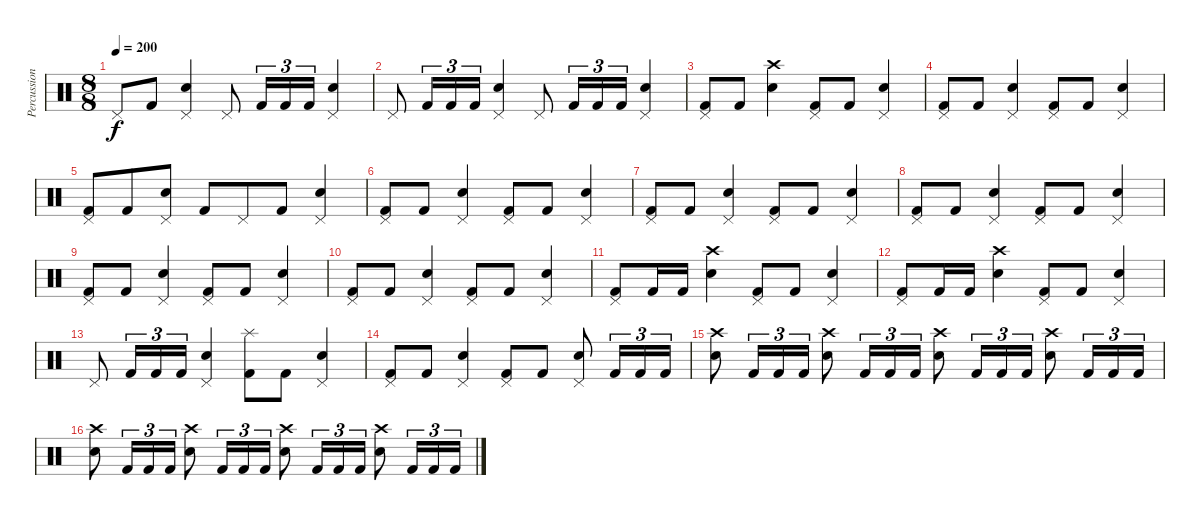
\track ("Percussions" "Percussion") {instrument percussion}
\staff {score}
\articulation defaults
\ts (8 8)
\tempo 200
\clef neutral
\ks c "Pedal Hi-Hat (hit)".8{dy f} "Kick (hit) 2".8
("Pedal Hi-Hat (hit)" "Snare (hit) 2").4 "Pedal Hi-Hat (hit)".8 "Kick (hit) 2".16{tu (3 2)} "Kick (hit) 2".16{tu (3 2)} "Kick (hit) 2".16{tu (3 2)} ("Pedal Hi-Hat (hit)" "Snare (hit) 2").4 |
"Pedal Hi-Hat (hit)".8 "Kick (hit) 2".16{tu (3 2)} "Kick (hit) 2".16{tu (3 2)} "Kick (hit) 2".16{tu (3 2)} ("Pedal Hi-Hat (hit)" "Snare (hit) 2").4 "Pedal Hi-Hat (hit)".8 "Kick (hit) 2".16{tu (3 2)} "Kick (hit) 2".16{tu (3 2)} "Kick (hit) 2".16{tu (3 2)} ("Pedal Hi-Hat (hit)" "Snare (hit) 2").4 |
("Pedal Hi-Hat (hit)" "Kick (hit) 2").8 "Kick (hit) 2".8 ("Crash high (hit)" "Snare (hit) 2").4 ("Pedal Hi-Hat (hit)" "Kick (hit) 2").8 "Kick (hit) 2".8 ("Pedal Hi-Hat (hit)" "Snare (hit) 2").4 |
("Pedal Hi-Hat (hit)" "Kick (hit) 2").8 "Kick (hit) 2".8 ("Pedal Hi-Hat (hit)" "Snare (hit) 2").4 ("Pedal Hi-Hat (hit)" "Kick (hit) 2").8 "Kick (hit) 2".8 ("Pedal Hi-Hat (hit)" "Snare (hit) 2").4 |
("Pedal Hi-Hat (hit)" "Kick (hit) 2").8 "Kick (hit) 2".8 ("Pedal Hi-Hat (hit)" "Snare (hit) 2").8 "Kick (hit) 2".8 "Pedal Hi-Hat (hit)".8 "Kick (hit) 2".8 ("Pedal Hi-Hat (hit)" "Snare (hit) 2").4 |
("Pedal Hi-Hat (hit)" "Kick (hit) 2").8 "Kick (hit) 2".8 ("Pedal Hi-Hat (hit)" "Snare (hit) 2").4 ("Pedal Hi-Hat (hit)" "Kick (hit) 2").8 "Kick (hit) 2".8 ("Pedal Hi-Hat (hit)" "Snare (hit) 2").4 |
("Pedal Hi-Hat (hit)" "Kick (hit) 2").8 "Kick (hit) 2".8 ("Pedal Hi-Hat (hit)" "Snare (hit) 2").4 ("Pedal Hi-Hat (hit)" "Kick (hit) 2").8 "Kick (hit) 2".8 ("Pedal Hi-Hat (hit)" "Snare (hit) 2").4 |
("Pedal Hi-Hat (hit)" "Kick (hit) 2").8 "Kick (hit) 2".8 ("Pedal Hi-Hat (hit)" "Snare (hit) 2").4 ("Pedal Hi-Hat (hit)" "Kick (hit) 2").8 "Kick (hit) 2".8 ("Pedal Hi-Hat (hit)" "Snare (hit) 2").4 |
("Pedal Hi-Hat (hit)" "Kick (hit) 2").8 "Kick (hit) 2".8 ("Pedal Hi-Hat (hit)" "Snare (hit) 2").4 ("Pedal Hi-Hat (hit)" "Kick (hit) 2").8 "Kick (hit) 2".8 ("Pedal Hi-Hat (hit)" "Snare (hit) 2").4 |
("Pedal Hi-Hat (hit)" "Kick (hit) 2").8 "Kick (hit) 2".8 ("Pedal Hi-Hat (hit)" "Snare (hit) 2").4 ("Pedal Hi-Hat (hit)" "Kick (hit) 2").8 "Kick (hit) 2".8 ("Pedal Hi-Hat (hit)" "Snare (hit) 2").4 |
("Pedal Hi-Hat (hit)" "Kick (hit) 2").8 "Kick (hit) 2".16 "Kick (hit) 2".16 ("Crash high (hit)" "Snare (hit) 2").4 ("Pedal Hi-Hat (hit)" "Kick (hit) 2").8 "Kick (hit) 2".8 ("Pedal Hi-Hat (hit)" "Snare (hit) 2").4 |
("Pedal Hi-Hat (hit)" "Kick (hit) 2").8 "Kick (hit) 2".16 "Kick (hit) 2".16 ("Crash high (hit)" "Snare (hit) 2").4 ("Pedal Hi-Hat (hit)" "Kick (hit) 2").8 "Kick (hit) 2".8 ("Pedal Hi-Hat (hit)" "Snare (hit) 2").4 |
"Pedal Hi-Hat (hit)".8 "Kick (hit) 2".16{tu (3 2)} "Kick (hit) 2".16{tu (3 2)} "Kick (hit) 2".16{tu (3 2)} ("Pedal Hi-Hat (hit)" "Snare (hit) 2").4 ("Splash (hit)" "Kick (hit) 2").8 "Kick (hit) 2".8 ("Pedal Hi-Hat (hit)" "Snare (hit) 2").4 |
("Pedal Hi-Hat (hit)" "Kick (hit) 2").8 "Kick (hit) 2".8 ("Pedal Hi-Hat (hit)" "Snare (hit) 2").4 ("Pedal Hi-Hat (hit)" "Kick (hit) 2").8 "Kick (hit) 2".8 ("Pedal Hi-Hat (hit)" "Snare (hit) 2").8 "Kick (hit) 2".16{tu (3 2)} "Kick (hit) 2".16{tu (3 2)} "Kick (hit) 2".16{tu (3 2)} |
("Crash high (hit)" "Snare (hit) 2").8 "Kick (hit) 2".16{tu (3 2)} "Kick (hit) 2".16{tu (3 2)} "Kick (hit) 2".16{tu (3 2)} ("Crash high (hit)" "Snare (hit) 2").8 "Kick (hit) 2".16{tu (3 2)} "Kick (hit) 2".16{tu (3 2)} "Kick (hit) 2".16{tu (3 2)} ("Crash high (hit)" "Snare (hit) 2").8 "Kick (hit) 2".16{tu (3 2)} "Kick (hit) 2".16{tu (3 2)} "Kick (hit) 2".16{tu (3 2)} ("Crash high (hit)" "Snare (hit) 2").8 "Kick (hit) 2".16{tu (3 2)} "Kick (hit) 2".16{tu (3 2)} "Kick (hit) 2".16{tu (3 2)} |
("Crash high (hit)" "Snare (hit) 2").8 "Kick (hit) 2".16{tu (3 2)} "Kick (hit) 2".16{tu (3 2)} "Kick (hit) 2".16{tu (3 2)} ("Crash high (hit)" "Snare (hit) 2").8 "Kick (hit) 2".16{tu (3 2)} "Kick (hit) 2".16{tu (3 2)} "Kick (hit) 2".16{tu (3 2)} ("Crash high (hit)" "Snare (hit) 2").8 "Kick (hit) 2".16{tu (3 2)} "Kick (hit) 2".16{tu (3 2)} "Kick (hit) 2".16{tu (3 2)} ("Crash high (hit)" "Snare (hit) 2").8 "Kick (hit) 2".16{tu (3 2)} "Kick (hit) 2".16{tu (3 2)} "Kick (hit) 2".16{tu (3 2)}
